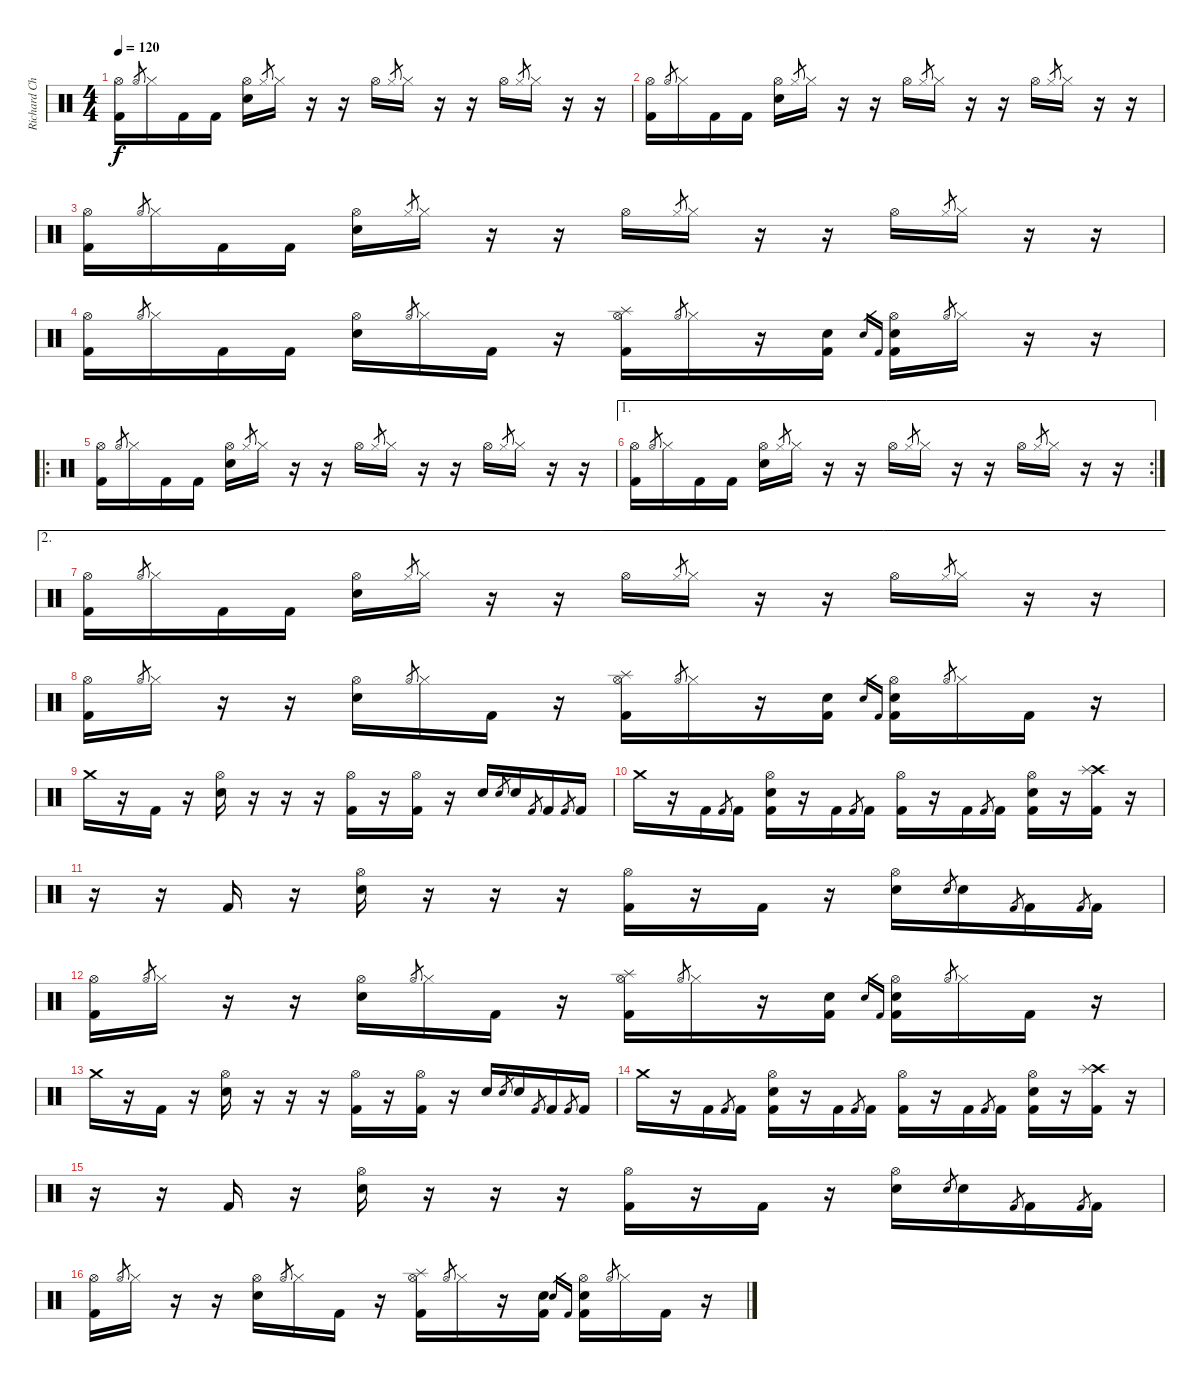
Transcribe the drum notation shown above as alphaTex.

\track ("Richard Christy" "Richard Ch") {instrument percussion}
\staff {score}
\articulation defaults
\ts (4 4)
\tempo 120
\clef neutral
\ks c
("Hi-Hat (open)" "Kick (hit) 2").16{dy f} "Hi-Hat (open)".8{gr} "Hi-Hat (closed)".16 "Kick (hit) 2".16 "Kick (hit) 2".16 ("Hi-Hat (open)" "Snare (hit) 2").16 "Hi-Hat (closed)".8{gr} "Hi-Hat (closed)".16 r.16 r.16 "Hi-Hat (open)".16 "Hi-Hat (closed)".8{gr} "Hi-Hat (closed)".16 r.16 r.16 "Hi-Hat (open)".16 "Hi-Hat (closed)".8{gr} "Hi-Hat (closed)".16 r.16 r.16 |
("Hi-Hat (open)" "Kick (hit) 2").16 "Hi-Hat (open)".8{gr} "Hi-Hat (closed)".16 "Kick (hit) 2".16 "Kick (hit) 2".16 ("Hi-Hat (open)" "Snare (hit) 2").16 "Hi-Hat (closed)".8{gr} "Hi-Hat (closed)".16 r.16 r.16 "Hi-Hat (open)".16 "Hi-Hat (closed)".8{gr} "Hi-Hat (closed)".16 r.16 r.16 "Hi-Hat (open)".16 "Hi-Hat (closed)".8{gr} "Hi-Hat (closed)".16 r.16 r.16 |
("Hi-Hat (open)" "Kick (hit) 2").16 "Hi-Hat (open)".8{gr} "Hi-Hat (closed)".16 "Kick (hit) 2".16 "Kick (hit) 2".16 ("Hi-Hat (open)" "Snare (hit) 2").16 "Hi-Hat (closed)".8{gr} "Hi-Hat (closed)".16 r.16 r.16 "Hi-Hat (open)".16 "Hi-Hat (closed)".8{gr} "Hi-Hat (closed)".16 r.16 r.16 "Hi-Hat (open)".16 "Hi-Hat (closed)".8{gr} "Hi-Hat (closed)".16 r.16 r.16 |
("Hi-Hat (open)" "Kick (hit) 2").16 "Hi-Hat (open)".8{gr} "Hi-Hat (closed)".16 "Kick (hit) 2".16 "Kick (hit) 2".16 ("Hi-Hat (open)" "Snare (hit) 2").16 "Hi-Hat (open)".8{gr} "Hi-Hat (closed)".16 "Kick (hit) 2".16 r.16 ("Hi-Hat (open)" "Splash (hit)" "Kick (hit) 2").16 "Hi-Hat (open)".8{gr} "Hi-Hat (closed)".16 r.16 ("Snare (hit) 2" "Kick (hit) 2").16 "Snare (hit) 2".16{gr} "Kick (hit) 2".16{gr} ("Hi-Hat (open)" "Snare (hit) 2" "Kick (hit) 2").16 "Hi-Hat (open)".8{gr} "Hi-Hat (closed)".16 r.16 r.16 |
\ro
("Hi-Hat (open)" "Kick (hit) 2").16 "Hi-Hat (open)".8{gr} "Hi-Hat (closed)".16 "Kick (hit) 2".16 "Kick (hit) 2".16 ("Hi-Hat (open)" "Snare (hit) 2").16 "Hi-Hat (closed)".8{gr} "Hi-Hat (closed)".16 r.16 r.16 "Hi-Hat (open)".16 "Hi-Hat (closed)".8{gr} "Hi-Hat (closed)".16 r.16 r.16 "Hi-Hat (open)".16 "Hi-Hat (closed)".8{gr} "Hi-Hat (closed)".16 r.16 r.16 |
\ae 1
\rc 2
("Hi-Hat (open)" "Kick (hit) 2").16 "Hi-Hat (open)".8{gr} "Hi-Hat (closed)".16 "Kick (hit) 2".16 "Kick (hit) 2".16 ("Hi-Hat (open)" "Snare (hit) 2").16 "Hi-Hat (closed)".8{gr} "Hi-Hat (closed)".16 r.16 r.16 "Hi-Hat (open)".16 "Hi-Hat (closed)".8{gr} "Hi-Hat (closed)".16 r.16 r.16 "Hi-Hat (open)".16 "Hi-Hat (closed)".8{gr} "Hi-Hat (closed)".16 r.16 r.16 |
\ae 2
("Hi-Hat (open)" "Kick (hit) 2").16 "Hi-Hat (open)".8{gr} "Hi-Hat (closed)".16 "Kick (hit) 2".16 "Kick (hit) 2".16 ("Hi-Hat (open)" "Snare (hit) 2").16 "Hi-Hat (closed)".8{gr} "Hi-Hat (closed)".16 r.16 r.16 "Hi-Hat (open)".16 "Hi-Hat (closed)".8{gr} "Hi-Hat (closed)".16 r.16 r.16 "Hi-Hat (open)".16 "Hi-Hat (closed)".8{gr} "Hi-Hat (closed)".16 r.16 r.16 |
("Hi-Hat (open)" "Kick (hit) 2").16 "Hi-Hat (open)".8{gr} "Hi-Hat (closed)".16 r.16 r.16 ("Hi-Hat (open)" "Snare (hit) 2").16 "Hi-Hat (open)".8{gr} "Hi-Hat (closed)".16 "Kick (hit) 2".16 r.16 ("Hi-Hat (open)" "Splash (hit)" "Kick (hit) 2").16 "Hi-Hat (open)".8{gr} "Hi-Hat (closed)".16 r.16 ("Snare (hit) 2" "Kick (hit) 2").16 "Snare (hit) 2".16{gr} "Kick (hit) 2".16{gr} ("Hi-Hat (open)" "Snare (hit) 2" "Kick (hit) 2").16 "Hi-Hat (open)".8{gr} "Hi-Hat (closed)".16 "Kick (hit) 2".16 r.16 |
"Crash medium (hit)".16 r.16 "Kick (hit) 2".16 r.16 ("Hi-Hat (open)" "Snare (hit) 2").16 r.16 r.16 r.16 ("Hi-Hat (open)" "Kick (hit) 2").16 r.16 ("Hi-Hat (open)" "Kick (hit) 2").16 r.16 "Snare (hit) 2".16 "Snare (hit) 2".8{gr} "Snare (hit) 2".16 "Kick (hit) 2".8{gr} "Kick (hit) 2".16 "Kick (hit) 2".8{gr} "Kick (hit) 2".16 |
"Crash medium (hit)".16 r.16 "Kick (hit) 2".16 "Kick (hit) 2".8{gr} "Kick (hit) 2".16 ("Hi-Hat (open)" "Snare (hit) 2" "Kick (hit) 2").16 r.16 "Kick (hit) 2".16 "Kick (hit) 2".8{gr} "Kick (hit) 2".16 ("Hi-Hat (open)" "Kick (hit) 2").16 r.16 "Kick (hit) 2".16 "Kick (hit) 2".8{gr} "Kick (hit) 2".16 ("Hi-Hat (open)" "Snare (hit) 2" "Kick (hit) 2").16 r.16 ("Crash high (hit)" "Splash (hit)" "Kick (hit) 2").16 r.16 |
r.16 r.16 "Kick (hit) 2".16 r.16 ("Hi-Hat (open)" "Snare (hit) 2").16 r.16 r.16 r.16 ("Hi-Hat (open)" "Kick (hit) 2").16 r.16 "Kick (hit) 2".16 r.16 ("Hi-Hat (open)" "Snare (hit) 2").16 "Snare (hit) 2".8{gr} "Snare (hit) 2".16 "Kick (hit) 2".8{gr} "Kick (hit) 2".16 "Kick (hit) 2".8{gr} "Kick (hit) 2".16 |
("Hi-Hat (open)" "Kick (hit) 2").16 "Hi-Hat (open)".8{gr} "Hi-Hat (closed)".16 r.16 r.16 ("Hi-Hat (open)" "Snare (hit) 2").16 "Hi-Hat (open)".8{gr} "Hi-Hat (closed)".16 "Kick (hit) 2".16 r.16 ("Hi-Hat (open)" "Splash (hit)" "Kick (hit) 2").16 "Hi-Hat (open)".8{gr} "Hi-Hat (closed)".16 r.16 ("Snare (hit) 2" "Kick (hit) 2").16 "Snare (hit) 2".16{gr} "Kick (hit) 2".16{gr} ("Hi-Hat (open)" "Snare (hit) 2" "Kick (hit) 2").16 "Hi-Hat (open)".8{gr} "Hi-Hat (closed)".16 "Kick (hit) 2".16 r.16 |
"Crash medium (hit)".16 r.16 "Kick (hit) 2".16 r.16 ("Hi-Hat (open)" "Snare (hit) 2").16 r.16 r.16 r.16 ("Hi-Hat (open)" "Kick (hit) 2").16 r.16 ("Hi-Hat (open)" "Kick (hit) 2").16 r.16 "Snare (hit) 2".16 "Snare (hit) 2".8{gr} "Snare (hit) 2".16 "Kick (hit) 2".8{gr} "Kick (hit) 2".16 "Kick (hit) 2".8{gr} "Kick (hit) 2".16 |
"Crash medium (hit)".16 r.16 "Kick (hit) 2".16 "Kick (hit) 2".8{gr} "Kick (hit) 2".16 ("Hi-Hat (open)" "Snare (hit) 2" "Kick (hit) 2").16 r.16 "Kick (hit) 2".16 "Kick (hit) 2".8{gr} "Kick (hit) 2".16 ("Hi-Hat (open)" "Kick (hit) 2").16 r.16 "Kick (hit) 2".16 "Kick (hit) 2".8{gr} "Kick (hit) 2".16 ("Hi-Hat (open)" "Snare (hit) 2" "Kick (hit) 2").16 r.16 ("Crash high (hit)" "Splash (hit)" "Kick (hit) 2").16 r.16 |
r.16 r.16 "Kick (hit) 2".16 r.16 ("Hi-Hat (open)" "Snare (hit) 2").16 r.16 r.16 r.16 ("Hi-Hat (open)" "Kick (hit) 2").16 r.16 "Kick (hit) 2".16 r.16 ("Hi-Hat (open)" "Snare (hit) 2").16 "Snare (hit) 2".8{gr} "Snare (hit) 2".16 "Kick (hit) 2".8{gr} "Kick (hit) 2".16 "Kick (hit) 2".8{gr} "Kick (hit) 2".16 |
("Hi-Hat (open)" "Kick (hit) 2").16 "Hi-Hat (open)".8{gr} "Hi-Hat (closed)".16 r.16 r.16 ("Hi-Hat (open)" "Snare (hit) 2").16 "Hi-Hat (open)".8{gr} "Hi-Hat (closed)".16 "Kick (hit) 2".16 r.16 ("Hi-Hat (open)" "Splash (hit)" "Kick (hit) 2").16 "Hi-Hat (open)".8{gr} "Hi-Hat (closed)".16 r.16 ("Snare (hit) 2" "Kick (hit) 2").16 "Snare (hit) 2".16{gr} "Kick (hit) 2".16{gr} ("Hi-Hat (open)" "Snare (hit) 2" "Kick (hit) 2").16 "Hi-Hat (open)".8{gr} "Hi-Hat (closed)".16 "Kick (hit) 2".16 r.16
